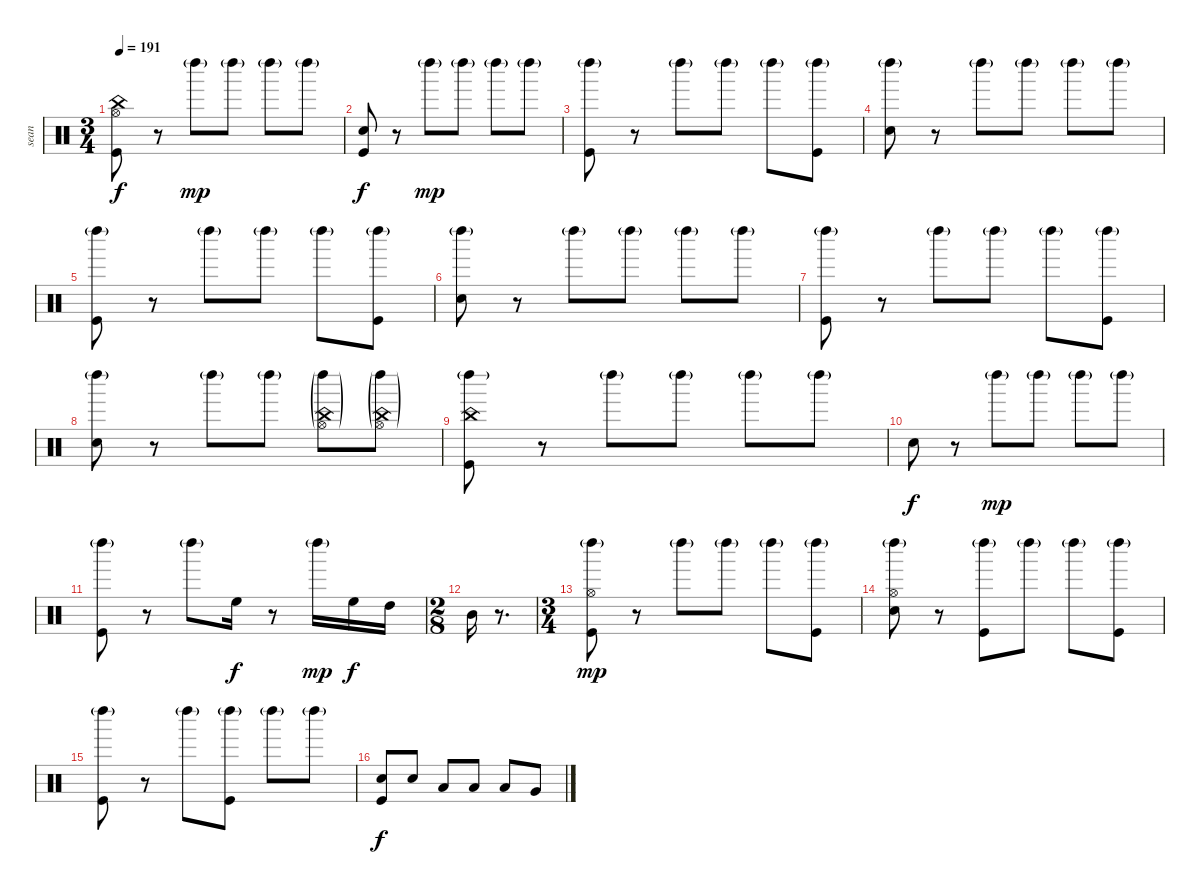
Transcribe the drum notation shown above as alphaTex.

\track ("sean" "sean") {instrument percussion}
\staff {score}
\articulation defaults
\ts (3 4)
\tempo 191
\clef neutral
\ks c
("Hi-Hat (open)" "Kick (hit)" "China (hit)").8{dy f} r.8 "Left Maraca (hit)"{g}.8{dy mp} "Left Maraca (hit)"{g}.8 "Left Maraca (hit)"{g}.8 "Left Maraca (hit)"{g}.8 |
("Electric Snare (hit)" "Kick (hit)").8{dy f} r.8 "Left Maraca (hit)"{g}.8{dy mp} "Left Maraca (hit)"{g}.8 "Left Maraca (hit)"{g}.8 "Left Maraca (hit)"{g}.8 |
("Kick (hit)" "Left Maraca (hit)"{g}).8 r.8 "Left Maraca (hit)"{g}.8 "Left Maraca (hit)"{g}.8 "Left Maraca (hit)"{g}.8 ("Kick (hit)" "Left Maraca (hit)"{g}).8 |
("Electric Snare (hit)" "Left Maraca (hit)"{g}).8 r.8 "Left Maraca (hit)"{g}.8 "Left Maraca (hit)"{g}.8 "Left Maraca (hit)"{g}.8 "Left Maraca (hit)"{g}.8 |
("Kick (hit)" "Left Maraca (hit)"{g}).8 r.8 "Left Maraca (hit)"{g}.8 "Left Maraca (hit)"{g}.8 "Left Maraca (hit)"{g}.8 ("Kick (hit)" "Left Maraca (hit)"{g}).8 |
("Electric Snare (hit)" "Left Maraca (hit)"{g}).8 r.8 "Left Maraca (hit)"{g}.8 "Left Maraca (hit)"{g}.8 "Left Maraca (hit)"{g}.8 "Left Maraca (hit)"{g}.8 |
("Kick (hit)" "Left Maraca (hit)"{g}).8 r.8 "Left Maraca (hit)"{g}.8 "Left Maraca (hit)"{g}.8 "Left Maraca (hit)"{g}.8 ("Kick (hit)" "Left Maraca (hit)"{g}).8 |
("Electric Snare (hit)" "Left Maraca (hit)"{g}).8 r.8 "Left Maraca (hit)"{g}.8 "Left Maraca (hit)"{g}.8 ("China (hit)"{g} "Hi-Hat (open)"{g} "Left Maraca (hit)"{g}).8 ("China (hit)"{g} "Hi-Hat (open)"{g} "Left Maraca (hit)"{g}).8 |
("China (hit)" "Kick (hit)" "Left Maraca (hit)"{g}).8 r.8 "Left Maraca (hit)"{g}.8 "Left Maraca (hit)"{g}.8 "Left Maraca (hit)"{g}.8 "Left Maraca (hit)"{g}.8 |
"Electric Snare (hit)".8{dy f} r.8 "Left Maraca (hit)"{g}.8{dy mp} "Left Maraca (hit)"{g}.8 "Left Maraca (hit)"{g}.8 "Left Maraca (hit)"{g}.8 |
("Kick (hit)" "Left Maraca (hit)"{g}).8 r.8 "Left Maraca (hit)"{g}.8 "High Floor Tom (hit)".16{dy f} r.8 "Left Maraca (hit)"{g}.16{dy mp} "High Floor Tom (hit)".16{dy f} "High Tom (hit)".16 |
\ts (2 8)
"Mid Tom (hit)".16 r.8{d} |
\ts (3 4)
("Hi-Hat (open)" "Kick (hit)" "Left Maraca (hit)"{g}).8{dy mp} r.8 "Left Maraca (hit)"{g}.8 "Left Maraca (hit)"{g}.8 "Left Maraca (hit)"{g}.8 ("Kick (hit)" "Left Maraca (hit)"{g}).8 |
("Hi-Hat (open)" "Electric Snare (hit)" "Left Maraca (hit)"{g}).8 r.8 ("Kick (hit)" "Left Maraca (hit)"{g}).8 "Left Maraca (hit)"{g}.8 "Left Maraca (hit)"{g}.8 ("Kick (hit)" "Left Maraca (hit)"{g}).8 |
("Kick (hit)" "Left Maraca (hit)"{g}).8 r.8 "Left Maraca (hit)"{g}.8 ("Kick (hit)" "Left Maraca (hit)"{g}).8 "Left Maraca (hit)"{g}.8 "Left Maraca (hit)"{g}.8 |
("Electric Snare (hit)" "Kick (hit)").8{dy f} "Electric Snare (hit)".8 "Low Tom (hit)".8 "Low Tom (hit)".8 "Low Tom (hit)".8 "Very Low Tom (hit)".8
